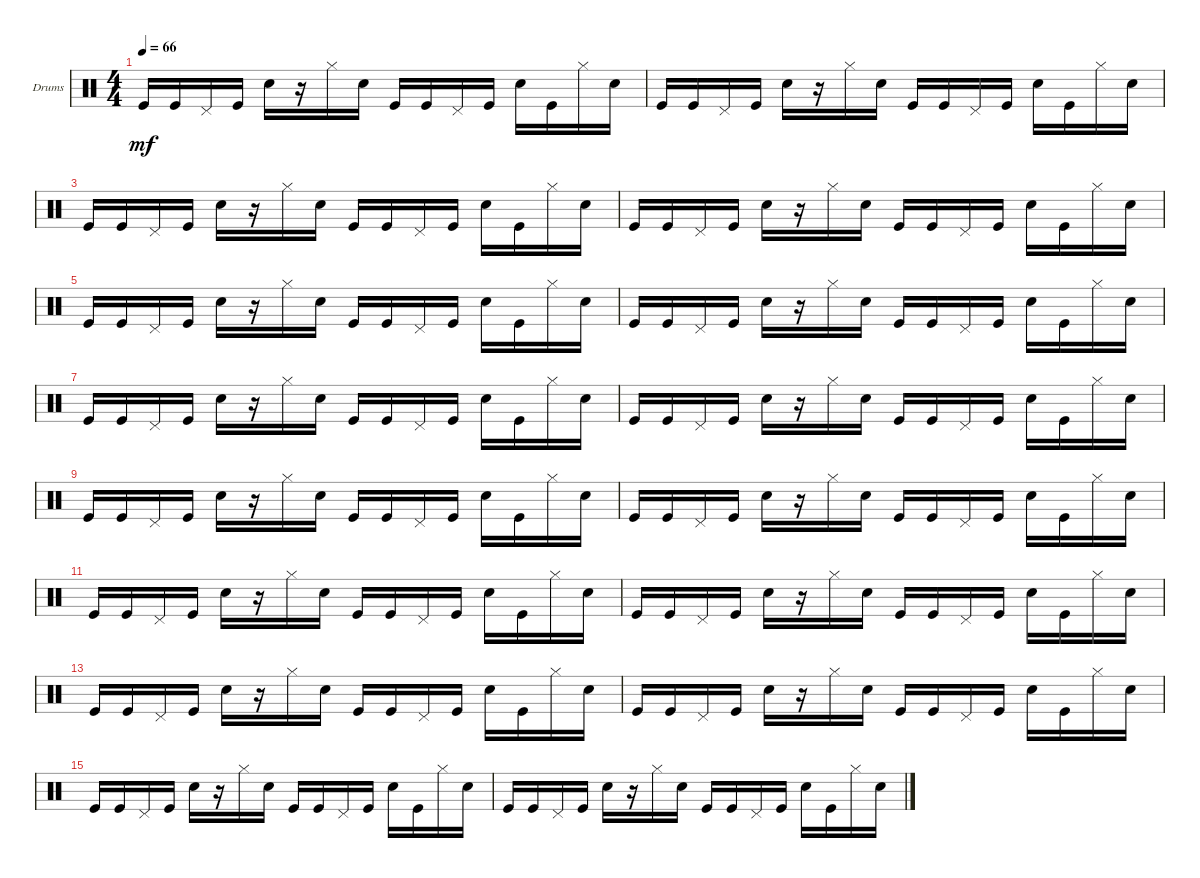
\bracketExtendMode nobrackets
\firstSystemTrackNameOrientation horizontal
\otherSystemsTrackNameOrientation horizontal
\defaultBarNumberDisplay FirstOfSystem
\track ("Drumkit" "Drums") {instrument percussion}
\staff {score}
\articulation defaults
\ts (4 4)
\tempo 66
\clef neutral
\ks c "Kick (hit)".16{dy mf} "Kick (hit)".16 "Pedal Hi-Hat (hit)".16 "Kick (hit)".16 "Snare (hit) 2".16
r.16 "Hi-Hat (closed)".16 "Snare (hit) 2".16 "Kick (hit)".16 "Kick (hit)".16 "Pedal Hi-Hat (hit)".16 "Kick (hit)".16 "Snare (hit) 2".16 "Kick (hit)".16 "Hi-Hat (closed)".16 "Snare (hit) 2".16 |
"Kick (hit)".16 "Kick (hit)".16 "Pedal Hi-Hat (hit)".16 "Kick (hit)".16 "Snare (hit) 2".16 r.16 "Hi-Hat (closed)".16 "Snare (hit) 2".16 "Kick (hit)".16 "Kick (hit)".16 "Pedal Hi-Hat (hit)".16 "Kick (hit)".16 "Snare (hit) 2".16 "Kick (hit)".16 "Hi-Hat (closed)".16 "Snare (hit) 2".16 |
"Kick (hit)".16 "Kick (hit)".16 "Pedal Hi-Hat (hit)".16 "Kick (hit)".16 "Snare (hit) 2".16 r.16 "Hi-Hat (closed)".16 "Snare (hit) 2".16 "Kick (hit)".16 "Kick (hit)".16 "Pedal Hi-Hat (hit)".16 "Kick (hit)".16 "Snare (hit) 2".16 "Kick (hit)".16 "Hi-Hat (closed)".16 "Snare (hit) 2".16 |
"Kick (hit)".16 "Kick (hit)".16 "Pedal Hi-Hat (hit)".16 "Kick (hit)".16 "Snare (hit) 2".16 r.16 "Hi-Hat (closed)".16 "Snare (hit) 2".16 "Kick (hit)".16 "Kick (hit)".16 "Pedal Hi-Hat (hit)".16 "Kick (hit)".16 "Snare (hit) 2".16 "Kick (hit)".16 "Hi-Hat (closed)".16 "Snare (hit) 2".16 |
"Kick (hit)".16 "Kick (hit)".16 "Pedal Hi-Hat (hit)".16 "Kick (hit)".16 "Snare (hit) 2".16 r.16 "Hi-Hat (closed)".16 "Snare (hit) 2".16 "Kick (hit)".16 "Kick (hit)".16 "Pedal Hi-Hat (hit)".16 "Kick (hit)".16 "Snare (hit) 2".16 "Kick (hit)".16 "Hi-Hat (closed)".16 "Snare (hit) 2".16 |
"Kick (hit)".16 "Kick (hit)".16 "Pedal Hi-Hat (hit)".16 "Kick (hit)".16 "Snare (hit) 2".16 r.16 "Hi-Hat (closed)".16 "Snare (hit) 2".16 "Kick (hit)".16 "Kick (hit)".16 "Pedal Hi-Hat (hit)".16 "Kick (hit)".16 "Snare (hit) 2".16 "Kick (hit)".16 "Hi-Hat (closed)".16 "Snare (hit) 2".16 |
"Kick (hit)".16 "Kick (hit)".16 "Pedal Hi-Hat (hit)".16 "Kick (hit)".16 "Snare (hit) 2".16 r.16 "Hi-Hat (closed)".16 "Snare (hit) 2".16 "Kick (hit)".16 "Kick (hit)".16 "Pedal Hi-Hat (hit)".16 "Kick (hit)".16 "Snare (hit) 2".16 "Kick (hit)".16 "Hi-Hat (closed)".16 "Snare (hit) 2".16 |
"Kick (hit)".16 "Kick (hit)".16 "Pedal Hi-Hat (hit)".16 "Kick (hit)".16 "Snare (hit) 2".16 r.16 "Hi-Hat (closed)".16 "Snare (hit) 2".16 "Kick (hit)".16 "Kick (hit)".16 "Pedal Hi-Hat (hit)".16 "Kick (hit)".16 "Snare (hit) 2".16 "Kick (hit)".16 "Hi-Hat (closed)".16 "Snare (hit) 2".16 |
"Kick (hit)".16 "Kick (hit)".16 "Pedal Hi-Hat (hit)".16 "Kick (hit)".16 "Snare (hit) 2".16 r.16 "Hi-Hat (closed)".16 "Snare (hit) 2".16 "Kick (hit)".16 "Kick (hit)".16 "Pedal Hi-Hat (hit)".16 "Kick (hit)".16 "Snare (hit) 2".16 "Kick (hit)".16 "Hi-Hat (closed)".16 "Snare (hit) 2".16 |
"Kick (hit)".16 "Kick (hit)".16 "Pedal Hi-Hat (hit)".16 "Kick (hit)".16 "Snare (hit) 2".16 r.16 "Hi-Hat (closed)".16 "Snare (hit) 2".16 "Kick (hit)".16 "Kick (hit)".16 "Pedal Hi-Hat (hit)".16 "Kick (hit)".16 "Snare (hit) 2".16 "Kick (hit)".16 "Hi-Hat (closed)".16 "Snare (hit) 2".16 |
"Kick (hit)".16 "Kick (hit)".16 "Pedal Hi-Hat (hit)".16 "Kick (hit)".16 "Snare (hit) 2".16 r.16 "Hi-Hat (closed)".16 "Snare (hit) 2".16 "Kick (hit)".16 "Kick (hit)".16 "Pedal Hi-Hat (hit)".16 "Kick (hit)".16 "Snare (hit) 2".16 "Kick (hit)".16 "Hi-Hat (closed)".16 "Snare (hit) 2".16 |
"Kick (hit)".16 "Kick (hit)".16 "Pedal Hi-Hat (hit)".16 "Kick (hit)".16 "Snare (hit) 2".16 r.16 "Hi-Hat (closed)".16 "Snare (hit) 2".16 "Kick (hit)".16 "Kick (hit)".16 "Pedal Hi-Hat (hit)".16 "Kick (hit)".16 "Snare (hit) 2".16 "Kick (hit)".16 "Hi-Hat (closed)".16 "Snare (hit) 2".16 |
"Kick (hit)".16 "Kick (hit)".16 "Pedal Hi-Hat (hit)".16 "Kick (hit)".16 "Snare (hit) 2".16 r.16 "Hi-Hat (closed)".16 "Snare (hit) 2".16 "Kick (hit)".16 "Kick (hit)".16 "Pedal Hi-Hat (hit)".16 "Kick (hit)".16 "Snare (hit) 2".16 "Kick (hit)".16 "Hi-Hat (closed)".16 "Snare (hit) 2".16 |
"Kick (hit)".16 "Kick (hit)".16 "Pedal Hi-Hat (hit)".16 "Kick (hit)".16 "Snare (hit) 2".16 r.16 "Hi-Hat (closed)".16 "Snare (hit) 2".16 "Kick (hit)".16 "Kick (hit)".16 "Pedal Hi-Hat (hit)".16 "Kick (hit)".16 "Snare (hit) 2".16 "Kick (hit)".16 "Hi-Hat (closed)".16 "Snare (hit) 2".16 |
"Kick (hit)".16 "Kick (hit)".16 "Pedal Hi-Hat (hit)".16 "Kick (hit)".16 "Snare (hit) 2".16 r.16 "Hi-Hat (closed)".16 "Snare (hit) 2".16 "Kick (hit)".16 "Kick (hit)".16 "Pedal Hi-Hat (hit)".16 "Kick (hit)".16 "Snare (hit) 2".16 "Kick (hit)".16 "Hi-Hat (closed)".16 "Snare (hit) 2".16 |
"Kick (hit)".16 "Kick (hit)".16 "Pedal Hi-Hat (hit)".16 "Kick (hit)".16 "Snare (hit) 2".16 r.16 "Hi-Hat (closed)".16 "Snare (hit) 2".16 "Kick (hit)".16 "Kick (hit)".16 "Pedal Hi-Hat (hit)".16 "Kick (hit)".16 "Snare (hit) 2".16 "Kick (hit)".16 "Hi-Hat (closed)".16 "Snare (hit) 2".16
